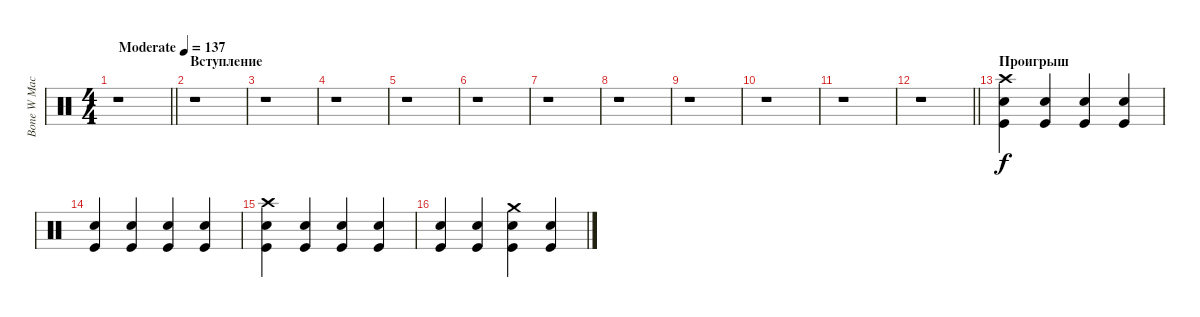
\track ("Bone W Machine Drums" "Bone W Mac") {instrument percussion}
\staff {score}
\articulation defaults
\ts (4 4)
\tempo (137 "Moderate")
\clef neutral
\barLineRight lightlight
\ks c
r.1{dy f} |
\section ("" "Вступление")
r.1 |
r.1 |
r.1 |
r.1 |
r.1 |
r.1 |
r.1 |
r.1 |
r.1 |
r.1 |
\barLineRight lightlight
r.1 |
\section ("" "Проигрыш")
("Crash high (hit)" "Snare (hit) 2" "Kick (hit)").4 ("Snare (hit) 2" "Kick (hit)").4 ("Snare (hit) 2" "Kick (hit)").4 ("Snare (hit) 2" "Kick (hit)").4 |
("Snare (hit) 2" "Kick (hit)").4 ("Snare (hit) 2" "Kick (hit)").4 ("Snare (hit) 2" "Kick (hit)").4 ("Snare (hit) 2" "Kick (hit)").4 |
("Crash high (hit)" "Snare (hit) 2" "Kick (hit)").4 ("Snare (hit) 2" "Kick (hit)").4 ("Snare (hit) 2" "Kick (hit)").4 ("Snare (hit) 2" "Kick (hit)").4 |
("Snare (hit) 2" "Kick (hit)").4 ("Snare (hit) 2" "Kick (hit)").4 ("Crash medium (hit)" "Snare (hit) 2" "Kick (hit)").4 ("Snare (hit) 2" "Kick (hit)").4
